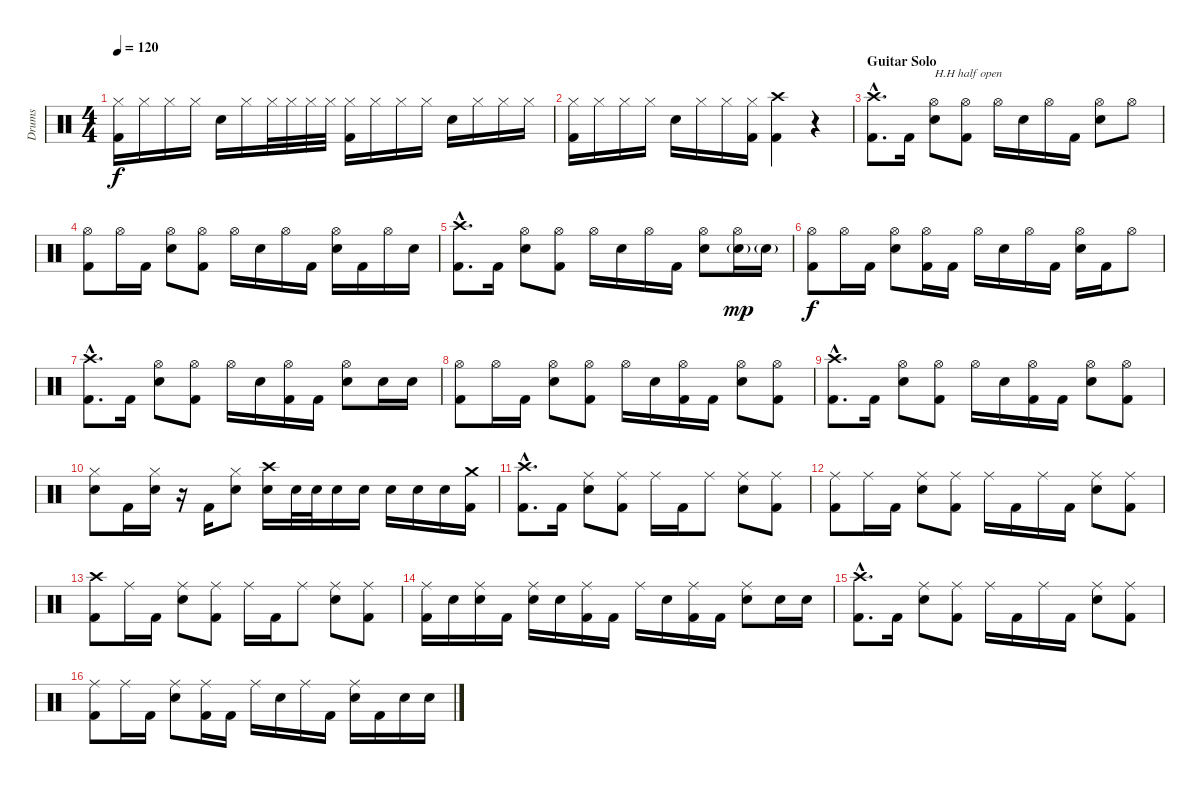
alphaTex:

\track ("Drums" "Drums") {instrument percussion}
\staff {score}
\articulation defaults
\ts (4 4)
\tempo 120
\clef neutral
\ks c
("Hi-Hat (closed)" "Kick (hit) 2").16{dy f} "Hi-Hat (closed)".16 "Hi-Hat (closed)".16 "Hi-Hat (closed)".16 "Electric Snare (hit)".16 "Hi-Hat (closed)".16 "Hi-Hat (closed)".32 "Hi-Hat (closed)".32 "Hi-Hat (closed)".32 "Hi-Hat (closed)".32 ("Hi-Hat (closed)" "Kick (hit) 2").16 "Hi-Hat (closed)".16 "Hi-Hat (closed)".16 "Hi-Hat (closed)".16 "Electric Snare (hit)".16 "Hi-Hat (closed)".16 "Hi-Hat (closed)".16 "Hi-Hat (closed)".16 |
("Hi-Hat (closed)" "Kick (hit) 2").16 "Hi-Hat (closed)".16 "Hi-Hat (closed)".16 "Hi-Hat (closed)".16 "Electric Snare (hit)".16 "Hi-Hat (closed)".16 "Hi-Hat (closed)".16 ("Hi-Hat (closed)" "Kick (hit) 2").16 ("Crash high (hit)" "Kick (hit) 2").4 r.4 |
\section ("" "Guitar Solo")
("Crash high (hit)"{hac} "Kick (hit) 2"{hac}).8{d} "Kick (hit) 2".16 ("Hi-Hat (open)" "Electric Snare (hit)").8{txt "H.H half open"} ("Hi-Hat (open)" "Kick (hit) 2").8 "Hi-Hat (open)".16 "Electric Snare (hit)".16 "Hi-Hat (open)".16 "Kick (hit) 2".16 ("Hi-Hat (open)" "Electric Snare (hit)").8 "Hi-Hat (open)".8 |
("Hi-Hat (open)" "Kick (hit) 2").8 "Hi-Hat (open)".16 "Kick (hit) 2".16 ("Hi-Hat (open)" "Electric Snare (hit)").8 ("Hi-Hat (open)" "Kick (hit) 2").8 "Hi-Hat (open)".16 "Electric Snare (hit)".16 "Hi-Hat (open)".16 "Kick (hit) 2".16 ("Hi-Hat (open)" "Electric Snare (hit)").16 "Kick (hit) 2".16 "Hi-Hat (open)".16 "Electric Snare (hit)".16 |
("Crash high (hit)"{hac} "Kick (hit) 2"{hac}).8{d} "Kick (hit) 2".16 ("Hi-Hat (open)" "Electric Snare (hit)").8 ("Hi-Hat (open)" "Kick (hit) 2").8 "Hi-Hat (open)".16 "Electric Snare (hit)".16 "Hi-Hat (open)".16 "Kick (hit) 2".16 ("Hi-Hat (open)" "Electric Snare (hit)").8 ("Hi-Hat (open)" "Electric Snare (hit)"{g}).16{dy mp} "Electric Snare (hit)"{g}.16 |
("Hi-Hat (open)" "Kick (hit) 2").8{dy f} "Hi-Hat (open)".16 "Kick (hit) 2".16 ("Hi-Hat (open)" "Electric Snare (hit)").8 ("Hi-Hat (open)" "Kick (hit) 2").16 "Kick (hit) 2".16 "Hi-Hat (open)".16 "Electric Snare (hit)".16 "Hi-Hat (open)".16 "Kick (hit) 2".16 ("Hi-Hat (open)" "Electric Snare (hit)").16 "Kick (hit) 2".16 "Hi-Hat (open)".8 |
("Crash high (hit)"{hac} "Kick (hit) 2"{hac}).8{d} "Kick (hit) 2".16 ("Hi-Hat (open)" "Electric Snare (hit)").8 ("Hi-Hat (open)" "Kick (hit) 2").8 "Hi-Hat (open)".16 "Electric Snare (hit)".16 ("Hi-Hat (open)" "Kick (hit) 2").16 "Kick (hit) 2".16 ("Hi-Hat (open)" "Electric Snare (hit)").8 "Electric Snare (hit)".16 "Electric Snare (hit)".16 |
("Hi-Hat (open)" "Kick (hit) 2").8 "Hi-Hat (open)".16 "Kick (hit) 2".16 ("Hi-Hat (open)" "Electric Snare (hit)").8 ("Hi-Hat (open)" "Kick (hit) 2").8 "Hi-Hat (open)".16 "Electric Snare (hit)".16 ("Hi-Hat (open)" "Kick (hit) 2").16 "Kick (hit) 2".16 ("Hi-Hat (open)" "Electric Snare (hit)").8 ("Hi-Hat (open)" "Kick (hit) 2").8 |
("Crash high (hit)"{hac} "Kick (hit) 2"{hac}).8{d} "Kick (hit) 2".16 ("Hi-Hat (open)" "Electric Snare (hit)").8 ("Hi-Hat (open)" "Kick (hit) 2").8 "Hi-Hat (open)".16 "Electric Snare (hit)".16 ("Hi-Hat (open)" "Kick (hit) 2").16 "Kick (hit) 2".16 ("Hi-Hat (open)" "Electric Snare (hit)").8 ("Hi-Hat (open)" "Kick (hit) 2").8 |
("Hi-Hat (closed)" "Electric Snare (hit)").8 "Kick (hit) 2".16 ("Hi-Hat (closed)" "Electric Snare (hit)").16 r.16 "Kick (hit) 2".16 ("Hi-Hat (closed)" "Electric Snare (hit)").8 ("Crash high (hit)" "Electric Snare (hit)").16 "Electric Snare (hit)".32 "Electric Snare (hit)".32 "Electric Snare (hit)".16 "Electric Snare (hit)".16 "Electric Snare (hit)".16 "Electric Snare (hit)".16 "Electric Snare (hit)".16 ("Crash medium (hit)" "Kick (hit) 2").16 |
("Crash high (hit)"{hac} "Kick (hit) 2"{hac}).8{d} "Kick (hit) 2".16 ("Ride (middle)" "Electric Snare (hit)").8 ("Ride (middle)" "Kick (hit) 2").8 "Ride (middle)".16 "Kick (hit) 2".16 "Ride (middle)".8 ("Ride (middle)" "Electric Snare (hit)").8 ("Ride (middle)" "Kick (hit) 2").8 |
("Ride (middle)" "Kick (hit) 2").8 "Ride (middle)".16 "Kick (hit) 2".16 ("Ride (middle)" "Electric Snare (hit)").8 ("Ride (middle)" "Kick (hit) 2").8 "Ride (middle)".16 "Kick (hit) 2".16 "Ride (middle)".16 "Kick (hit) 2".16 ("Ride (middle)" "Electric Snare (hit)").8 ("Ride (middle)" "Kick (hit) 2").8 |
("Crash high (hit)" "Kick (hit) 2").8 "Ride (middle)".16 "Kick (hit) 2".16 ("Ride (middle)" "Electric Snare (hit)").8 ("Ride (middle)" "Kick (hit) 2").8 "Ride (middle)".16 "Kick (hit) 2".16 "Ride (middle)".8 ("Ride (middle)" "Electric Snare (hit)").8 ("Ride (middle)" "Kick (hit) 2").8 |
("Ride (middle)" "Kick (hit) 2").16 "Electric Snare (hit)".16 ("Ride (middle)" "Electric Snare (hit)").16 "Kick (hit) 2".16 ("Ride (middle)" "Electric Snare (hit)").16 "Electric Snare (hit)".16 ("Ride (middle)" "Kick (hit) 2").16 "Kick (hit) 2".16 "Ride (middle)".16 "Electric Snare (hit)".16 ("Ride (middle)" "Kick (hit) 2").16 "Kick (hit) 2".16 ("Ride (middle)" "Electric Snare (hit)").8 "Electric Snare (hit)".16 "Electric Snare (hit)".16 |
("Crash high (hit)"{hac} "Kick (hit) 2"{hac}).8{d} "Kick (hit) 2".16 ("Ride (middle)" "Electric Snare (hit)").8 ("Ride (middle)" "Kick (hit) 2").8 "Ride (middle)".16 "Kick (hit) 2".16 "Ride (middle)".16 "Kick (hit) 2".16 ("Ride (middle)" "Electric Snare (hit)").8 ("Ride (middle)" "Kick (hit) 2").8 |
("Ride (middle)" "Kick (hit) 2").8 "Ride (middle)".16 "Kick (hit) 2".16 ("Ride (middle)" "Electric Snare (hit)").8 ("Ride (middle)" "Kick (hit) 2").16 "Kick (hit) 2".16 "Ride (middle)".16 "Electric Snare (hit)".16 "Ride (middle)".16 "Kick (hit) 2".16 ("Ride (middle)" "Electric Snare (hit)").16 "Kick (hit) 2".16 "Electric Snare (hit)".16 "Electric Snare (hit)".16
